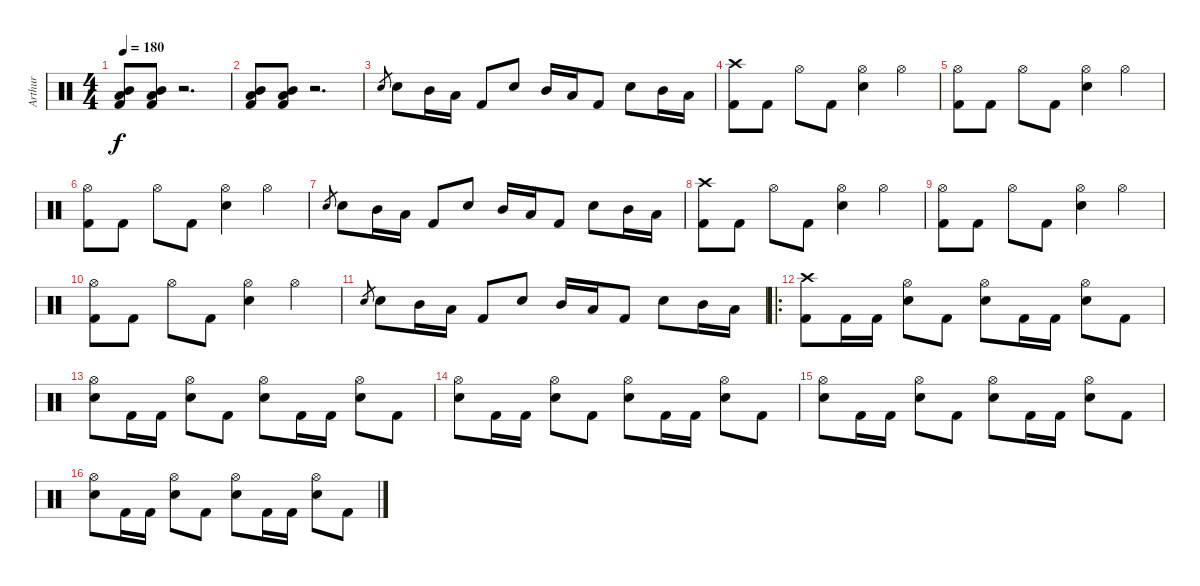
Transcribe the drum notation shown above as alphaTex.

\track ("Arthur" "Arthur") {instrument percussion}
\staff {score}
\articulation defaults
\ts (4 4)
\tempo 180
\clef neutral
\ks c
("Mid Tom (hit)" "Low Tom (hit)" "Kick (hit) 2").8{dy f} ("Mid Tom (hit)" "Low Tom (hit)" "Kick (hit) 2").8 r.2{d} |
("Mid Tom (hit)" "Low Tom (hit)" "Kick (hit) 2").8 ("Mid Tom (hit)" "Low Tom (hit)" "Kick (hit) 2").8 r.2{d} |
"Electric Snare (hit)".8{gr} "Electric Snare (hit)".8 "Mid Tom (hit)".16 "Low Tom (hit)".16 "Kick (hit) 2".8 "Electric Snare (hit)".8 "Mid Tom (hit)".16 "Low Tom (hit)".16 "Kick (hit) 2".8 "Electric Snare (hit)".8 "Mid Tom (hit)".16 "Low Tom (hit)".16 |
("Crash high (hit)" "Kick (hit) 2").8 "Kick (hit) 2".8 "Hi-Hat (open)".8 "Kick (hit) 2".8 ("Hi-Hat (open)" "Electric Snare (hit)").4 "Hi-Hat (open)".4 |
("Hi-Hat (open)" "Kick (hit) 2").8 "Kick (hit) 2".8 "Hi-Hat (open)".8 "Kick (hit) 2".8 ("Hi-Hat (open)" "Electric Snare (hit)").4 "Hi-Hat (open)".4 |
("Hi-Hat (open)" "Kick (hit) 2").8 "Kick (hit) 2".8 "Hi-Hat (open)".8 "Kick (hit) 2".8 ("Hi-Hat (open)" "Electric Snare (hit)").4 "Hi-Hat (open)".4 |
"Electric Snare (hit)".8{gr} "Electric Snare (hit)".8 "Mid Tom (hit)".16 "Low Tom (hit)".16 "Kick (hit) 2".8 "Electric Snare (hit)".8 "Mid Tom (hit)".16 "Low Tom (hit)".16 "Kick (hit) 2".8 "Electric Snare (hit)".8 "Mid Tom (hit)".16 "Low Tom (hit)".16 |
("Crash high (hit)" "Kick (hit) 2").8 "Kick (hit) 2".8 "Hi-Hat (open)".8 "Kick (hit) 2".8 ("Hi-Hat (open)" "Electric Snare (hit)").4 "Hi-Hat (open)".4 |
("Hi-Hat (open)" "Kick (hit) 2").8 "Kick (hit) 2".8 "Hi-Hat (open)".8 "Kick (hit) 2".8 ("Hi-Hat (open)" "Electric Snare (hit)").4 "Hi-Hat (open)".4 |
("Hi-Hat (open)" "Kick (hit) 2").8 "Kick (hit) 2".8 "Hi-Hat (open)".8 "Kick (hit) 2".8 ("Hi-Hat (open)" "Electric Snare (hit)").4 "Hi-Hat (open)".4 |
"Electric Snare (hit)".8{gr} "Electric Snare (hit)".8 "Mid Tom (hit)".16 "Low Tom (hit)".16 "Kick (hit) 2".8 "Electric Snare (hit)".8 "Mid Tom (hit)".16 "Low Tom (hit)".16 "Kick (hit) 2".8 "Electric Snare (hit)".8 "Mid Tom (hit)".16 "Low Tom (hit)".16 |
\ro
("Crash high (hit)" "Kick (hit) 2").8 "Kick (hit) 2".16 "Kick (hit) 2".16 ("Hi-Hat (open)" "Electric Snare (hit)").8 "Kick (hit) 2".8 ("Hi-Hat (open)" "Electric Snare (hit)").8 "Kick (hit) 2".16 "Kick (hit) 2".16 ("Hi-Hat (open)" "Electric Snare (hit)").8 "Kick (hit) 2".8 |
("Hi-Hat (open)" "Electric Snare (hit)").8 "Kick (hit) 2".16 "Kick (hit) 2".16 ("Hi-Hat (open)" "Electric Snare (hit)").8 "Kick (hit) 2".8 ("Hi-Hat (open)" "Electric Snare (hit)").8 "Kick (hit) 2".16 "Kick (hit) 2".16 ("Hi-Hat (open)" "Electric Snare (hit)").8 "Kick (hit) 2".8 |
("Hi-Hat (open)" "Electric Snare (hit)").8 "Kick (hit) 2".16 "Kick (hit) 2".16 ("Hi-Hat (open)" "Electric Snare (hit)").8 "Kick (hit) 2".8 ("Hi-Hat (open)" "Electric Snare (hit)").8 "Kick (hit) 2".16 "Kick (hit) 2".16 ("Hi-Hat (open)" "Electric Snare (hit)").8 "Kick (hit) 2".8 |
("Hi-Hat (open)" "Electric Snare (hit)").8 "Kick (hit) 2".16 "Kick (hit) 2".16 ("Hi-Hat (open)" "Electric Snare (hit)").8 "Kick (hit) 2".8 ("Hi-Hat (open)" "Electric Snare (hit)").8 "Kick (hit) 2".16 "Kick (hit) 2".16 ("Hi-Hat (open)" "Electric Snare (hit)").8 "Kick (hit) 2".8 |
("Hi-Hat (open)" "Electric Snare (hit)").8 "Kick (hit) 2".16 "Kick (hit) 2".16 ("Hi-Hat (open)" "Electric Snare (hit)").8 "Kick (hit) 2".8 ("Hi-Hat (open)" "Electric Snare (hit)").8 "Kick (hit) 2".16 "Kick (hit) 2".16 ("Hi-Hat (open)" "Electric Snare (hit)").8 "Kick (hit) 2".8
